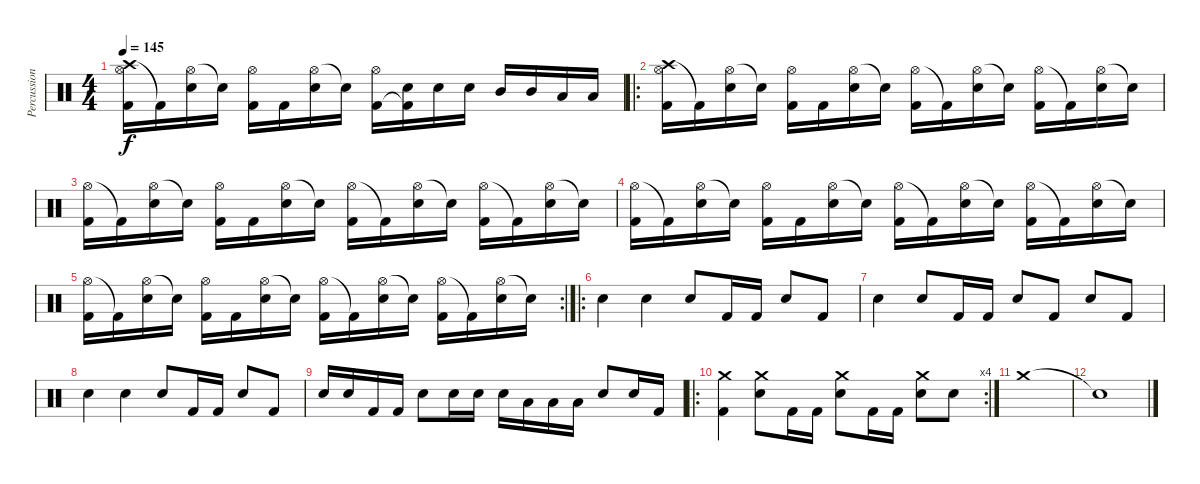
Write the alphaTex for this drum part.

\track ("Percussions" "Percussion") {instrument percussion}
\staff {score}
\articulation defaults
\ts (4 4)
\tempo 145
\clef neutral
\ks c
("Crash high (hit)" "Hi-Hat (open)" "Kick (hit) 2").16{dy f} "Kick (hit) 2"{t}.16 ("Hi-Hat (open)" "Electric Snare (hit)").16 "Electric Snare (hit)"{t}.16 ("Hi-Hat (open)" "Kick (hit) 2").16 "Kick (hit) 2".16 ("Hi-Hat (open)" "Electric Snare (hit)").16 "Electric Snare (hit)"{t}.16 ("Hi-Hat (open)" "Kick (hit) 2").16 ("Electric Snare (hit)" "Kick (hit) 2"{t}).16 "Electric Snare (hit)".16 "Electric Snare (hit)".16 "Mid Tom (hit)".16 "Mid Tom (hit)".16 "Low Tom (hit)".16 "Low Tom (hit)".16 |
\ro
("Crash high (hit)" "Hi-Hat (open)" "Kick (hit) 2").16 "Kick (hit) 2"{t}.16 ("Hi-Hat (open)" "Electric Snare (hit)").16 "Electric Snare (hit)"{t}.16 ("Hi-Hat (open)" "Kick (hit) 2").16 "Kick (hit) 2".16 ("Hi-Hat (open)" "Electric Snare (hit)").16 "Electric Snare (hit)"{t}.16 ("Hi-Hat (open)" "Kick (hit) 2").16 "Kick (hit) 2"{t}.16 ("Hi-Hat (open)" "Electric Snare (hit)").16 "Electric Snare (hit)"{t}.16 ("Hi-Hat (open)" "Kick (hit) 2").16 "Kick (hit) 2"{t}.16 ("Hi-Hat (open)" "Electric Snare (hit)").16 "Snare (hit)"{t}.16 |
("Hi-Hat (open)" "Kick (hit) 2").16 "Kick (hit) 2"{t}.16 ("Hi-Hat (open)" "Electric Snare (hit)").16 "Electric Snare (hit)"{t}.16 ("Hi-Hat (open)" "Kick (hit) 2").16 "Kick (hit) 2".16 ("Hi-Hat (open)" "Electric Snare (hit)").16 "Electric Snare (hit)"{t}.16 ("Hi-Hat (open)" "Kick (hit) 2").16 "Kick (hit) 2"{t}.16 ("Hi-Hat (open)" "Electric Snare (hit)").16 "Electric Snare (hit)"{t}.16 ("Hi-Hat (open)" "Kick (hit) 2").16 "Kick (hit) 2"{t}.16 ("Hi-Hat (open)" "Electric Snare (hit)").16 "Snare (hit)"{t}.16 |
("Hi-Hat (open)" "Kick (hit) 2").16 "Kick (hit) 2"{t}.16 ("Hi-Hat (open)" "Electric Snare (hit)").16 "Electric Snare (hit)"{t}.16 ("Hi-Hat (open)" "Kick (hit) 2").16 "Kick (hit) 2".16 ("Hi-Hat (open)" "Electric Snare (hit)").16 "Electric Snare (hit)"{t}.16 ("Hi-Hat (open)" "Kick (hit) 2").16 "Kick (hit) 2"{t}.16 ("Hi-Hat (open)" "Electric Snare (hit)").16 "Electric Snare (hit)"{t}.16 ("Hi-Hat (open)" "Kick (hit) 2").16 "Kick (hit) 2"{t}.16 ("Hi-Hat (open)" "Electric Snare (hit)").16 "Snare (hit)"{t}.16 |
\rc 2
("Hi-Hat (open)" "Kick (hit) 2").16 "Kick (hit) 2"{t}.16 ("Hi-Hat (open)" "Electric Snare (hit)").16 "Electric Snare (hit)"{t}.16 ("Hi-Hat (open)" "Kick (hit) 2").16 "Kick (hit) 2".16 ("Hi-Hat (open)" "Electric Snare (hit)").16 "Electric Snare (hit)"{t}.16 ("Hi-Hat (open)" "Kick (hit) 2").16 "Kick (hit) 2"{t}.16 ("Hi-Hat (open)" "Electric Snare (hit)").16 "Electric Snare (hit)"{t}.16 ("Hi-Hat (open)" "Kick (hit) 2").16 "Kick (hit) 2"{t}.16 ("Hi-Hat (open)" "Electric Snare (hit)").16 "Snare (hit)"{t}.16 |
\ro "Electric Snare (hit)".4 "Electric Snare (hit)".4 "Electric Snare (hit)".8 "Kick (hit) 2".16 "Kick (hit) 2".16 "Electric Snare (hit)".8 "Kick (hit) 2".8
|
"Electric Snare (hit)".4 "Electric Snare (hit)".8 "Kick (hit) 2".16 "Kick (hit) 2".16 "Electric Snare (hit)".8 "Kick (hit) 2".8 "Electric Snare (hit)".8 "Kick (hit) 2".8 |
"Electric Snare (hit)".4 "Electric Snare (hit)".4 "Electric Snare (hit)".8 "Kick (hit) 2".16 "Kick (hit) 2".16 "Electric Snare (hit)".8 "Kick (hit) 2".8 |
"Electric Snare (hit)".16 "Electric Snare (hit)".16 "Kick (hit) 2".16 "Kick (hit) 2".16 "Electric Snare (hit)".8 "Electric Snare (hit)".16 "Electric Snare (hit)".16 "Electric Snare (hit)".16 "Low Tom (hit)".16 "Low Tom (hit)".16 "Low Tom (hit)".16 "Electric Snare (hit)".8 "Electric Snare (hit)".16 "Kick (hit) 2".16 |
\ro
\rc 4
("Crash medium (hit)" "Kick (hit) 2").4 ("Crash medium (hit)" "Electric Snare (hit)").8 "Kick (hit) 2".16 "Kick (hit) 2".16 ("Crash medium (hit)" "Electric Snare (hit)").8 "Kick (hit) 2".16 "Kick (hit) 2".16 ("Crash medium (hit)" "Electric Snare (hit)").8 "Electric Snare (hit)".8 |
"Crash medium (hit)".1 |
"Snare (hit)"{t}.1
